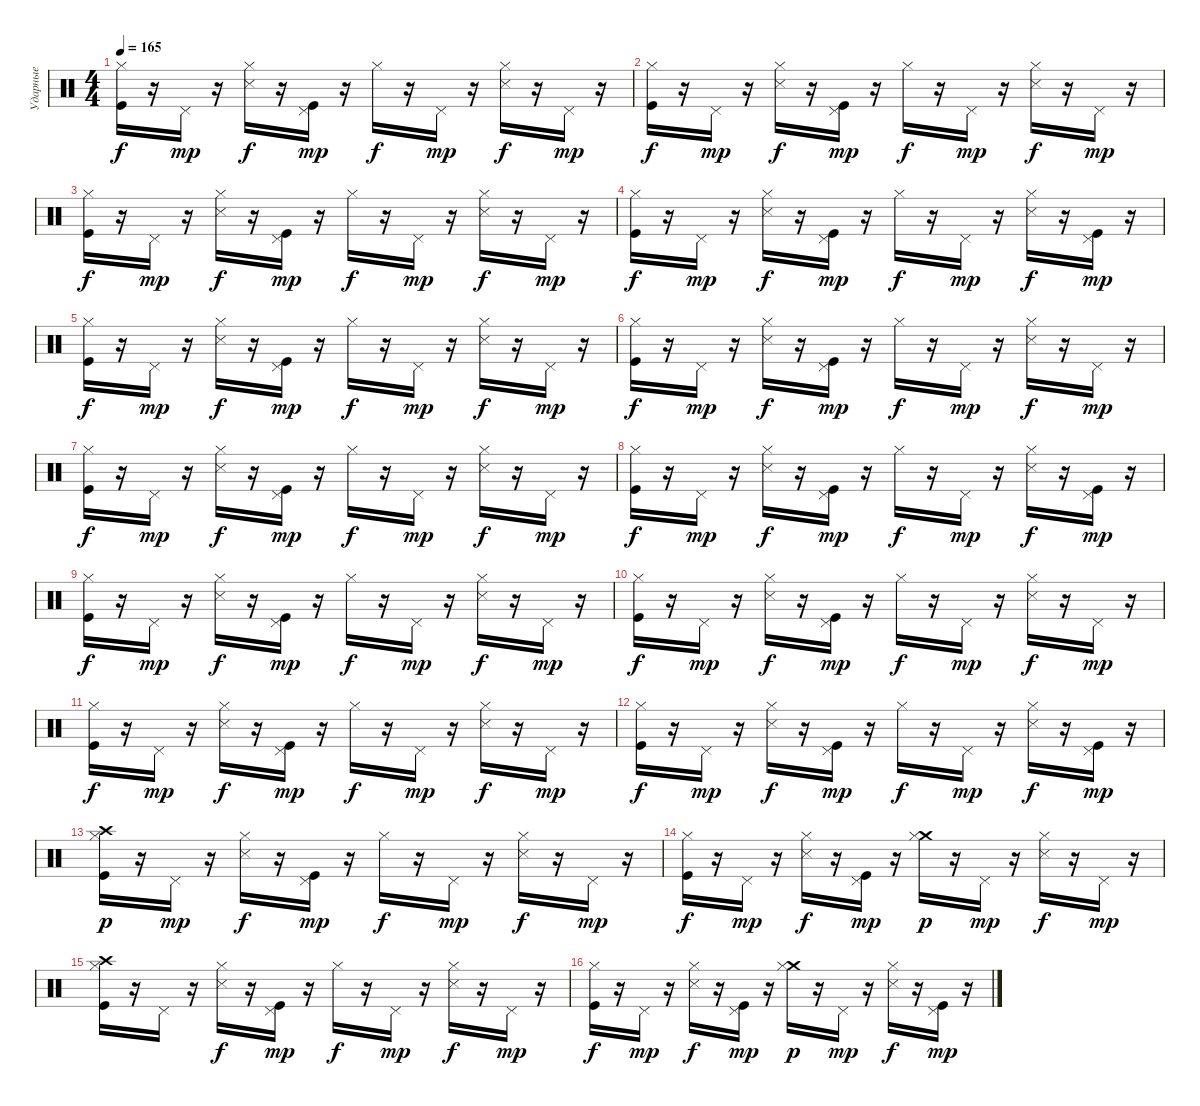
\track ("Ударные" "Ударные") {instrument percussion}
\staff {score}
\articulation defaults
\ts (4 4)
\tempo 165
\clef neutral
\ks c
("Kick (hit)" "Hi-Hat (closed)").16{dy f} r.16 "Pedal Hi-Hat (hit)".16{dy mp} r.16 ("Hi-Hat (closed)" "Snare (side stick) 3").16{dy f} r.16 ("Pedal Hi-Hat (hit)" "Kick (hit)").16{dy mp} r.16 "Hi-Hat (closed)".16{dy f} r.16 "Pedal Hi-Hat (hit)".16{dy mp} r.16 ("Hi-Hat (closed)" "Snare (side stick) 3").16{dy f} r.16 "Pedal Hi-Hat (hit)".16{dy mp} r.16 |
("Hi-Hat (closed)" "Kick (hit)").16{dy f} r.16 "Pedal Hi-Hat (hit)".16{dy mp} r.16 ("Hi-Hat (closed)" "Snare (side stick) 3").16{dy f} r.16 ("Pedal Hi-Hat (hit)" "Kick (hit)").16{dy mp} r.16 "Hi-Hat (closed)".16{dy f} r.16 "Pedal Hi-Hat (hit)".16{dy mp} r.16 ("Hi-Hat (closed)" "Snare (side stick) 3").16{dy f} r.16 "Pedal Hi-Hat (hit)".16{dy mp} r.16 |
("Hi-Hat (closed)" "Kick (hit)").16{dy f} r.16 "Pedal Hi-Hat (hit)".16{dy mp} r.16 ("Hi-Hat (closed)" "Snare (side stick) 3").16{dy f} r.16 ("Kick (hit)" "Pedal Hi-Hat (hit)").16{dy mp} r.16 "Hi-Hat (closed)".16{dy f} r.16 "Pedal Hi-Hat (hit)".16{dy mp} r.16 ("Snare (side stick) 3" "Hi-Hat (closed)").16{dy f} r.16 "Pedal Hi-Hat (hit)".16{dy mp} r.16 |
("Hi-Hat (closed)" "Kick (hit)").16{dy f} r.16 "Pedal Hi-Hat (hit)".16{dy mp} r.16 ("Snare (side stick) 3" "Hi-Hat (closed)").16{dy f} r.16 ("Pedal Hi-Hat (hit)" "Kick (hit)").16{dy mp} r.16 "Hi-Hat (closed)".16{dy f} r.16 "Pedal Hi-Hat (hit)".16{dy mp} r.16 ("Snare (side stick) 3" "Hi-Hat (closed)").16{dy f} r.16 ("Kick (hit)" "Pedal Hi-Hat (hit)").16{dy mp} r.16 |
("Hi-Hat (closed)" "Kick (hit)").16{dy f} r.16 "Pedal Hi-Hat (hit)".16{dy mp} r.16 ("Hi-Hat (closed)" "Snare (side stick) 3").16{dy f} r.16 ("Kick (hit)" "Pedal Hi-Hat (hit)").16{dy mp} r.16 "Hi-Hat (closed)".16{dy f} r.16 "Pedal Hi-Hat (hit)".16{dy mp} r.16 ("Snare (side stick) 3" "Hi-Hat (closed)").16{dy f} r.16 "Pedal Hi-Hat (hit)".16{dy mp} r.16 |
("Hi-Hat (closed)" "Kick (hit)").16{dy f} r.16 "Pedal Hi-Hat (hit)".16{dy mp} r.16 ("Snare (side stick) 3" "Hi-Hat (closed)").16{dy f} r.16 ("Kick (hit)" "Pedal Hi-Hat (hit)").16{dy mp} r.16 "Hi-Hat (closed)".16{dy f} r.16 "Pedal Hi-Hat (hit)".16{dy mp} r.16 ("Snare (side stick) 3" "Hi-Hat (closed)").16{dy f} r.16 "Pedal Hi-Hat (hit)".16{dy mp} r.16 |
("Hi-Hat (closed)" "Kick (hit)").16{dy f} r.16 "Pedal Hi-Hat (hit)".16{dy mp} r.16 ("Snare (side stick) 3" "Hi-Hat (closed)").16{dy f} r.16 ("Pedal Hi-Hat (hit)" "Kick (hit)").16{dy mp} r.16 "Hi-Hat (closed)".16{dy f} r.16 "Pedal Hi-Hat (hit)".16{dy mp} r.16 ("Snare (side stick) 3" "Hi-Hat (closed)").16{dy f} r.16 "Pedal Hi-Hat (hit)".16{dy mp} r.16 |
("Hi-Hat (closed)" "Kick (hit)").16{dy f} r.16 "Pedal Hi-Hat (hit)".16{dy mp} r.16 ("Snare (side stick) 3" "Hi-Hat (closed)").16{dy f} r.16 ("Kick (hit)" "Pedal Hi-Hat (hit)").16{dy mp} r.16 "Hi-Hat (closed)".16{dy f} r.16 "Pedal Hi-Hat (hit)".16{dy mp} r.16 ("Snare (side stick) 3" "Hi-Hat (closed)").16{dy f} r.16 ("Kick (hit)" "Pedal Hi-Hat (hit)").16{dy mp} r.16 |
("Hi-Hat (closed)" "Kick (hit)").16{dy f} r.16 "Pedal Hi-Hat (hit)".16{dy mp} r.16 ("Snare (side stick) 3" "Hi-Hat (closed)").16{dy f} r.16 ("Pedal Hi-Hat (hit)" "Kick (hit)").16{dy mp} r.16 "Hi-Hat (closed)".16{dy f} r.16 "Pedal Hi-Hat (hit)".16{dy mp} r.16 ("Hi-Hat (closed)" "Snare (side stick) 3").16{dy f} r.16 "Pedal Hi-Hat (hit)".16{dy mp} r.16 |
("Kick (hit)" "Hi-Hat (closed)").16{dy f} r.16 "Pedal Hi-Hat (hit)".16{dy mp} r.16 ("Snare (side stick) 3" "Hi-Hat (closed)").16{dy f} r.16 ("Kick (hit)" "Pedal Hi-Hat (hit)").16{dy mp} r.16 "Hi-Hat (closed)".16{dy f} r.16 "Pedal Hi-Hat (hit)".16{dy mp} r.16 ("Snare (side stick) 3" "Hi-Hat (closed)").16{dy f} r.16 "Pedal Hi-Hat (hit)".16{dy mp} r.16 |
("Hi-Hat (closed)" "Kick (hit)").16{dy f} r.16 "Pedal Hi-Hat (hit)".16{dy mp} r.16 ("Snare (side stick) 3" "Hi-Hat (closed)").16{dy f} r.16 ("Kick (hit)" "Pedal Hi-Hat (hit)").16{dy mp} r.16 "Hi-Hat (closed)".16{dy f} r.16 "Pedal Hi-Hat (hit)".16{dy mp} r.16 ("Hi-Hat (closed)" "Snare (side stick) 3").16{dy f} r.16 "Pedal Hi-Hat (hit)".16{dy mp} r.16 |
("Hi-Hat (closed)" "Kick (hit)").16{dy f} r.16 "Pedal Hi-Hat (hit)".16{dy mp} r.16 ("Snare (side stick) 3" "Hi-Hat (closed)").16{dy f} r.16 ("Kick (hit)" "Pedal Hi-Hat (hit)").16{dy mp} r.16 "Hi-Hat (closed)".16{dy f} r.16 "Pedal Hi-Hat (hit)".16{dy mp} r.16 ("Snare (side stick) 3" "Hi-Hat (closed)").16{dy f} r.16 ("Kick (hit)" "Pedal Hi-Hat (hit)").16{dy mp} r.16 |
("Crash high (hit)" "Hi-Hat (closed)" "Kick (hit)").16{dy p} r.16 "Pedal Hi-Hat (hit)".16{dy mp} r.16 ("Snare (side stick) 3" "Hi-Hat (closed)").16{dy f} r.16 ("Pedal Hi-Hat (hit)" "Kick (hit)").16{dy mp} r.16 "Hi-Hat (closed)".16{dy f} r.16 "Pedal Hi-Hat (hit)".16{dy mp} r.16 ("Snare (side stick) 3" "Hi-Hat (closed)").16{dy f} r.16 "Pedal Hi-Hat (hit)".16{dy mp} r.16 |
("Kick (hit)" "Hi-Hat (closed)").16{dy f} r.16 "Pedal Hi-Hat (hit)".16{dy mp} r.16 ("Hi-Hat (closed)" "Snare (side stick) 3").16{dy f} r.16 ("Pedal Hi-Hat (hit)" "Kick (hit)").16{dy mp} r.16 ("Crash medium (hit)" "Hi-Hat (closed)").16{dy p} r.16 "Pedal Hi-Hat (hit)".16{dy mp} r.16 ("Hi-Hat (closed)" "Snare (side stick) 3").16{dy f} r.16 "Pedal Hi-Hat (hit)".16{dy mp} r.16 |
("Crash high (hit)" "Kick (hit)" "Hi-Hat (closed)").16 r.16 "Pedal Hi-Hat (hit)".16 r.16 ("Snare (side stick) 3" "Hi-Hat (closed)").16{dy f} r.16 ("Pedal Hi-Hat (hit)" "Kick (hit)").16{dy mp} r.16 "Hi-Hat (closed)".16{dy f} r.16 "Pedal Hi-Hat (hit)".16{dy mp} r.16 ("Hi-Hat (closed)" "Snare (side stick) 3").16{dy f} r.16 "Pedal Hi-Hat (hit)".16{dy mp} r.16 |
("Kick (hit)" "Hi-Hat (closed)").16{dy f} r.16 "Pedal Hi-Hat (hit)".16{dy mp} r.16 ("Snare (side stick) 3" "Hi-Hat (closed)").16{dy f} r.16 ("Pedal Hi-Hat (hit)" "Kick (hit)").16{dy mp} r.16 ("Crash medium (hit)" "Hi-Hat (closed)").16{dy p} r.16 "Pedal Hi-Hat (hit)".16{dy mp} r.16 ("Hi-Hat (closed)" "Snare (side stick) 3").16{dy f} r.16 ("Pedal Hi-Hat (hit)" "Kick (hit)").16{dy mp} r.16
